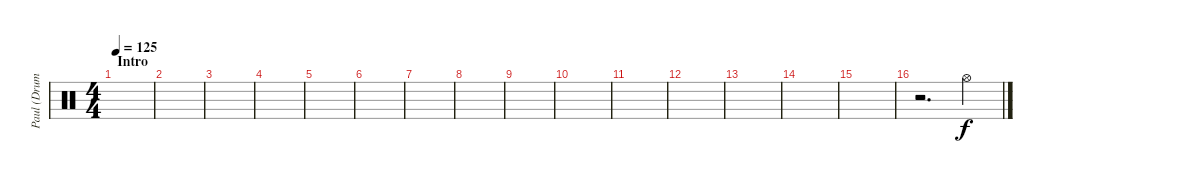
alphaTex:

\track ("Paul (Drums)" "Paul (Drum") {instrument percussion}
\staff {score}
\articulation defaults
\ts (4 4)
\section ("" "Intro")
\tempo 125
\clef neutral
\ks c
|
|
|
|
|
|
|
|
|
|
|
|
|
|
|
r.2{d} "Hi-Hat (open)".4
